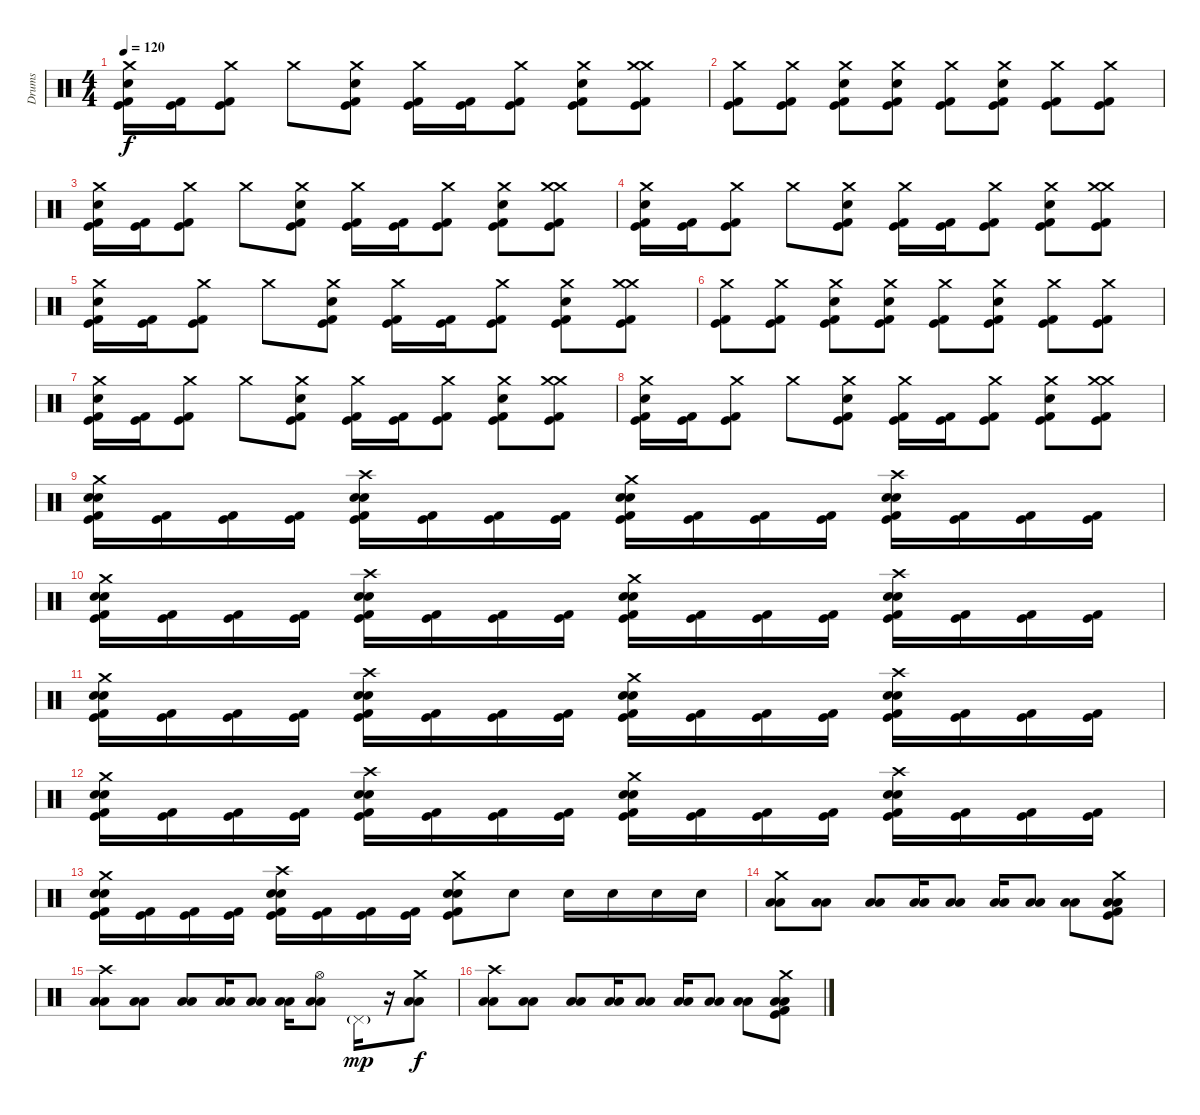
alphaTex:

\track ("Drums" "Drums") {instrument percussion}
\staff {score}
\articulation defaults
\ts (4 4)
\tempo 120
\clef neutral
\ks c
("Crash medium (hit)" "Snare (hit) 2" "Kick (hit)" "Kick (hit) 2").16{dy f} ("Kick (hit)" "Kick (hit) 2").16 ("Crash medium (hit)" "Kick (hit)" "Kick (hit) 2").8 "Crash medium (hit)".8 ("Crash medium (hit)" "Snare (hit) 2" "Kick (hit)" "Kick (hit) 2").8 ("Crash medium (hit)" "Kick (hit)" "Kick (hit) 2").16 ("Kick (hit)" "Kick (hit) 2").16 ("Crash medium (hit)" "Kick (hit)" "Kick (hit) 2").8 ("Crash medium (hit)" "Snare (hit) 2" "Kick (hit)" "Kick (hit) 2").8 ("Crash medium (hit)" "Crash medium (hit)" "Kick (hit)" "Kick (hit) 2").8 |
("Crash medium (hit)" "Kick (hit)" "Kick (hit) 2").8 ("Crash medium (hit)" "Kick (hit)" "Kick (hit) 2").8 ("Crash medium (hit)" "Snare (hit) 2" "Kick (hit)" "Kick (hit) 2").8 ("Crash medium (hit)" "Snare (hit) 2" "Kick (hit)" "Kick (hit) 2").8 ("Crash medium (hit)" "Kick (hit)" "Kick (hit) 2").8 ("Crash medium (hit)" "Snare (hit) 2" "Kick (hit)" "Kick (hit) 2").8 ("Crash medium (hit)" "Kick (hit)" "Kick (hit) 2").8 ("Crash medium (hit)" "Kick (hit)" "Kick (hit) 2").8 |
("Crash medium (hit)" "Snare (hit) 2" "Kick (hit)" "Kick (hit) 2").16 ("Kick (hit)" "Kick (hit) 2").16 ("Crash medium (hit)" "Kick (hit)" "Kick (hit) 2").8 "Crash medium (hit)".8 ("Crash medium (hit)" "Snare (hit) 2" "Kick (hit)" "Kick (hit) 2").8 ("Crash medium (hit)" "Kick (hit)" "Kick (hit) 2").16 ("Kick (hit)" "Kick (hit) 2").16 ("Crash medium (hit)" "Kick (hit)" "Kick (hit) 2").8 ("Crash medium (hit)" "Snare (hit) 2" "Kick (hit)" "Kick (hit) 2").8 ("Crash medium (hit)" "Crash medium (hit)" "Kick (hit)" "Kick (hit) 2").8 |
("Crash medium (hit)" "Snare (hit) 2" "Kick (hit)" "Kick (hit) 2").16 ("Kick (hit)" "Kick (hit) 2").16 ("Crash medium (hit)" "Kick (hit)" "Kick (hit) 2").8 "Crash medium (hit)".8 ("Crash medium (hit)" "Snare (hit) 2" "Kick (hit)" "Kick (hit) 2").8 ("Crash medium (hit)" "Kick (hit)" "Kick (hit) 2").16 ("Kick (hit)" "Kick (hit) 2").16 ("Crash medium (hit)" "Kick (hit)" "Kick (hit) 2").8 ("Crash medium (hit)" "Snare (hit) 2" "Kick (hit)" "Kick (hit) 2").8 ("Crash medium (hit)" "Crash medium (hit)" "Kick (hit)" "Kick (hit) 2").8 |
("Crash medium (hit)" "Snare (hit) 2" "Kick (hit)" "Kick (hit) 2").16 ("Kick (hit)" "Kick (hit) 2").16 ("Crash medium (hit)" "Kick (hit)" "Kick (hit) 2").8 "Crash medium (hit)".8 ("Crash medium (hit)" "Snare (hit) 2" "Kick (hit)" "Kick (hit) 2").8 ("Crash medium (hit)" "Kick (hit)" "Kick (hit) 2").16 ("Kick (hit)" "Kick (hit) 2").16 ("Crash medium (hit)" "Kick (hit)" "Kick (hit) 2").8 ("Crash medium (hit)" "Snare (hit) 2" "Kick (hit)" "Kick (hit) 2").8 ("Crash medium (hit)" "Crash medium (hit)" "Kick (hit)" "Kick (hit) 2").8 |
("Crash medium (hit)" "Kick (hit)" "Kick (hit) 2").8 ("Crash medium (hit)" "Kick (hit)" "Kick (hit) 2").8 ("Crash medium (hit)" "Snare (hit) 2" "Kick (hit)" "Kick (hit) 2").8 ("Crash medium (hit)" "Snare (hit) 2" "Kick (hit)" "Kick (hit) 2").8 ("Crash medium (hit)" "Kick (hit)" "Kick (hit) 2").8 ("Crash medium (hit)" "Snare (hit) 2" "Kick (hit)" "Kick (hit) 2").8 ("Crash medium (hit)" "Kick (hit)" "Kick (hit) 2").8 ("Crash medium (hit)" "Kick (hit)" "Kick (hit) 2").8 |
("Crash medium (hit)" "Snare (hit) 2" "Kick (hit)" "Kick (hit) 2").16 ("Kick (hit)" "Kick (hit) 2").16 ("Crash medium (hit)" "Kick (hit)" "Kick (hit) 2").8 "Crash medium (hit)".8 ("Crash medium (hit)" "Snare (hit) 2" "Kick (hit)" "Kick (hit) 2").8 ("Crash medium (hit)" "Kick (hit)" "Kick (hit) 2").16 ("Kick (hit)" "Kick (hit) 2").16 ("Crash medium (hit)" "Kick (hit)" "Kick (hit) 2").8 ("Crash medium (hit)" "Snare (hit) 2" "Kick (hit)" "Kick (hit) 2").8 ("Crash medium (hit)" "Crash medium (hit)" "Kick (hit)" "Kick (hit) 2").8 |
("Crash medium (hit)" "Snare (hit) 2" "Kick (hit)" "Kick (hit) 2").16 ("Kick (hit)" "Kick (hit) 2").16 ("Crash medium (hit)" "Kick (hit)" "Kick (hit) 2").8 "Crash medium (hit)".8 ("Crash medium (hit)" "Snare (hit) 2" "Kick (hit)" "Kick (hit) 2").8 ("Crash medium (hit)" "Kick (hit)" "Kick (hit) 2").16 ("Kick (hit)" "Kick (hit) 2").16 ("Crash medium (hit)" "Kick (hit)" "Kick (hit) 2").8 ("Crash medium (hit)" "Snare (hit) 2" "Kick (hit)" "Kick (hit) 2").8 ("Crash medium (hit)" "Crash medium (hit)" "Kick (hit)" "Kick (hit) 2").8 |
("Crash medium (hit)" "Snare (hit) 2" "Electric Snare (hit)" "Kick (hit)" "Kick (hit) 2").16 ("Kick (hit)" "Kick (hit) 2").16 ("Kick (hit)" "Kick (hit) 2").16 ("Kick (hit)" "Kick (hit) 2").16 ("Crash high (hit)" "Snare (hit) 2" "Electric Snare (hit)" "Kick (hit)" "Kick (hit) 2").16 ("Kick (hit)" "Kick (hit) 2").16 ("Kick (hit)" "Kick (hit) 2").16 ("Kick (hit)" "Kick (hit) 2").16 ("Crash medium (hit)" "Snare (hit) 2" "Electric Snare (hit)" "Kick (hit)" "Kick (hit) 2").16 ("Kick (hit)" "Kick (hit) 2").16 ("Kick (hit)" "Kick (hit) 2").16 ("Kick (hit)" "Kick (hit) 2").16 ("Crash high (hit)" "Snare (hit) 2" "Electric Snare (hit)" "Kick (hit)" "Kick (hit) 2").16 ("Kick (hit)" "Kick (hit) 2").16 ("Kick (hit)" "Kick (hit) 2").16 ("Kick (hit)" "Kick (hit) 2").16 |
("Crash medium (hit)" "Snare (hit) 2" "Electric Snare (hit)" "Kick (hit)" "Kick (hit) 2").16 ("Kick (hit)" "Kick (hit) 2").16 ("Kick (hit)" "Kick (hit) 2").16 ("Kick (hit)" "Kick (hit) 2").16 ("Crash high (hit)" "Snare (hit) 2" "Electric Snare (hit)" "Kick (hit)" "Kick (hit) 2").16 ("Kick (hit)" "Kick (hit) 2").16 ("Kick (hit)" "Kick (hit) 2").16 ("Kick (hit)" "Kick (hit) 2").16 ("Crash medium (hit)" "Snare (hit) 2" "Electric Snare (hit)" "Kick (hit)" "Kick (hit) 2").16 ("Kick (hit)" "Kick (hit) 2").16 ("Kick (hit)" "Kick (hit) 2").16 ("Kick (hit)" "Kick (hit) 2").16 ("Crash high (hit)" "Snare (hit) 2" "Electric Snare (hit)" "Kick (hit)" "Kick (hit) 2").16 ("Kick (hit)" "Kick (hit) 2").16 ("Kick (hit)" "Kick (hit) 2").16 ("Kick (hit)" "Kick (hit) 2").16 |
("Crash medium (hit)" "Snare (hit) 2" "Electric Snare (hit)" "Kick (hit)" "Kick (hit) 2").16 ("Kick (hit)" "Kick (hit) 2").16 ("Kick (hit)" "Kick (hit) 2").16 ("Kick (hit)" "Kick (hit) 2").16 ("Crash high (hit)" "Snare (hit) 2" "Electric Snare (hit)" "Kick (hit)" "Kick (hit) 2").16 ("Kick (hit)" "Kick (hit) 2").16 ("Kick (hit)" "Kick (hit) 2").16 ("Kick (hit)" "Kick (hit) 2").16 ("Crash medium (hit)" "Snare (hit) 2" "Electric Snare (hit)" "Kick (hit)" "Kick (hit) 2").16 ("Kick (hit)" "Kick (hit) 2").16 ("Kick (hit)" "Kick (hit) 2").16 ("Kick (hit)" "Kick (hit) 2").16 ("Crash high (hit)" "Snare (hit) 2" "Electric Snare (hit)" "Kick (hit)" "Kick (hit) 2").16 ("Kick (hit)" "Kick (hit) 2").16 ("Kick (hit)" "Kick (hit) 2").16 ("Kick (hit)" "Kick (hit) 2").16 |
("Crash medium (hit)" "Snare (hit) 2" "Electric Snare (hit)" "Kick (hit)" "Kick (hit) 2").16 ("Kick (hit)" "Kick (hit) 2").16 ("Kick (hit)" "Kick (hit) 2").16 ("Kick (hit)" "Kick (hit) 2").16 ("Crash high (hit)" "Snare (hit) 2" "Electric Snare (hit)" "Kick (hit)" "Kick (hit) 2").16 ("Kick (hit)" "Kick (hit) 2").16 ("Kick (hit)" "Kick (hit) 2").16 ("Kick (hit)" "Kick (hit) 2").16 ("Crash medium (hit)" "Snare (hit) 2" "Electric Snare (hit)" "Kick (hit)" "Kick (hit) 2").16 ("Kick (hit)" "Kick (hit) 2").16 ("Kick (hit)" "Kick (hit) 2").16 ("Kick (hit)" "Kick (hit) 2").16 ("Crash high (hit)" "Snare (hit) 2" "Electric Snare (hit)" "Kick (hit)" "Kick (hit) 2").16 ("Kick (hit)" "Kick (hit) 2").16 ("Kick (hit)" "Kick (hit) 2").16 ("Kick (hit)" "Kick (hit) 2").16 |
("Crash medium (hit)" "Snare (hit) 2" "Electric Snare (hit)" "Kick (hit)" "Kick (hit) 2").16 ("Kick (hit)" "Kick (hit) 2").16 ("Kick (hit)" "Kick (hit) 2").16 ("Kick (hit)" "Kick (hit) 2").16 ("Crash high (hit)" "Snare (hit) 2" "Electric Snare (hit)" "Kick (hit)" "Kick (hit) 2").16 ("Kick (hit)" "Kick (hit) 2").16 ("Kick (hit)" "Kick (hit) 2").16 ("Kick (hit)" "Kick (hit) 2").16 ("Crash medium (hit)" "Snare (hit) 2" "Electric Snare (hit)" "Kick (hit)" "Kick (hit) 2").8 "Snare (hit) 2".8 "Snare (hit) 2".16 "Snare (hit) 2".16 "Snare (hit) 2".16 "Snare (hit) 2".16 |
("Crash medium (hit)" "Low Floor Tom (hit)" "Low Tom (hit)").8 ("Low Floor Tom (hit)" "Low Tom (hit)").8 ("Low Floor Tom (hit)" "Low Tom (hit)").8 ("Low Floor Tom (hit)" "Low Tom (hit)").16 ("Low Floor Tom (hit)" "Low Tom (hit)").8 ("Low Floor Tom (hit)" "Low Tom (hit)").16 ("Low Floor Tom (hit)" "Low Tom (hit)").8 ("Low Floor Tom (hit)" "Low Tom (hit)").8 ("Crash medium (hit)" "Low Floor Tom (hit)" "Low Tom (hit)" "Kick (hit)" "Kick (hit) 2").8 |
("Crash high (hit)" "Low Floor Tom (hit)" "Low Tom (hit)").8 ("Low Floor Tom (hit)" "Low Tom (hit)").8 ("Low Floor Tom (hit)" "Low Tom (hit)").8 ("Low Floor Tom (hit)" "Low Tom (hit)").16 ("Low Floor Tom (hit)" "Low Tom (hit)").8 ("Low Floor Tom (hit)" "Low Tom (hit)").16 ("Hi-Hat (open)" "Low Floor Tom (hit)" "Low Tom (hit)").8 "Pedal Hi-Hat (hit)"{g}.16{dy mp} r.16 ("Crash medium (hit)" "Low Floor Tom (hit)" "Low Tom (hit)").8{dy f} |
("Crash high (hit)" "Low Floor Tom (hit)" "Low Tom (hit)").8 ("Low Floor Tom (hit)" "Low Tom (hit)").8 ("Low Floor Tom (hit)" "Low Tom (hit)").8 ("Low Floor Tom (hit)" "Low Tom (hit)").16 ("Low Floor Tom (hit)" "Low Tom (hit)").8 ("Low Floor Tom (hit)" "Low Tom (hit)").16 ("Low Floor Tom (hit)" "Low Tom (hit)").8 ("Low Floor Tom (hit)" "Low Tom (hit)").8 ("Crash medium (hit)" "Low Floor Tom (hit)" "Low Tom (hit)" "Kick (hit)" "Kick (hit) 2").8
